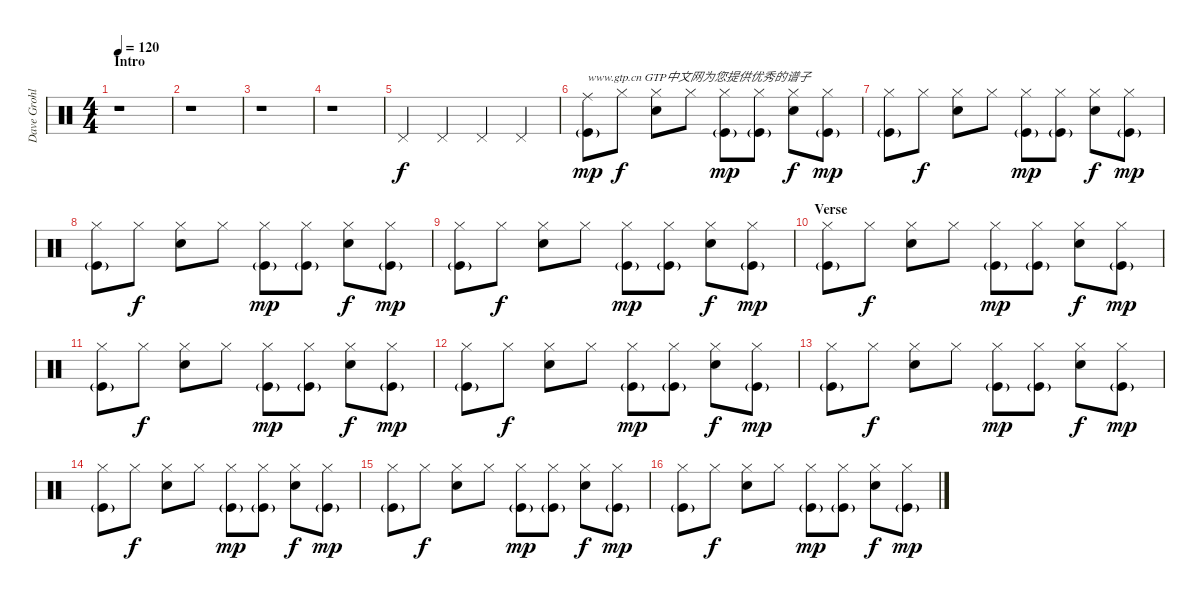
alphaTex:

\track ("Dave Grohl" "Dave Grohl") {instrument percussion}
\staff {score}
\articulation defaults
\ts (4 4)
\section ("" "Intro")
\tempo 120
\clef neutral
\ks c
r.1{dy f} |
r.1 |
r.1 |
r.1 |
"Pedal Hi-Hat (hit)".4 "Pedal Hi-Hat (hit)".4 "Pedal Hi-Hat (hit)".4 "Pedal Hi-Hat (hit)".4 |
("Ride (middle)" "Kick (hit)"{g}).8{txt "www.gtp.cn GTP中文网为您提供优秀的谱子" dy mp} "Hi-Hat (closed)".8{dy f} ("Hi-Hat (closed)" "Electric Snare (hit)").8 "Hi-Hat (closed)".8 ("Hi-Hat (closed)" "Kick (hit)"{g}).8{dy mp} ("Hi-Hat (closed)" "Kick (hit)"{g}).8 ("Hi-Hat (closed)" "Electric Snare (hit)").8{dy f} ("Hi-Hat (closed)" "Kick (hit)"{g}).8{dy mp} |
("Hi-Hat (closed)" "Kick (hit)"{g}).8 "Hi-Hat (closed)".8{dy f} ("Hi-Hat (closed)" "Electric Snare (hit)").8 "Hi-Hat (closed)".8 ("Hi-Hat (closed)" "Kick (hit)"{g}).8{dy mp} ("Hi-Hat (closed)" "Kick (hit)"{g}).8 ("Hi-Hat (closed)" "Electric Snare (hit)").8{dy f} ("Hi-Hat (closed)" "Kick (hit)"{g}).8{dy mp} |
("Hi-Hat (closed)" "Kick (hit)"{g}).8 "Hi-Hat (closed)".8{dy f} ("Hi-Hat (closed)" "Electric Snare (hit)").8 "Hi-Hat (closed)".8 ("Hi-Hat (closed)" "Kick (hit)"{g}).8{dy mp} ("Hi-Hat (closed)" "Kick (hit)"{g}).8 ("Hi-Hat (closed)" "Electric Snare (hit)").8{dy f} ("Hi-Hat (closed)" "Kick (hit)"{g}).8{dy mp} |
("Hi-Hat (closed)" "Kick (hit)"{g}).8 "Hi-Hat (closed)".8{dy f} ("Hi-Hat (closed)" "Electric Snare (hit)").8 "Hi-Hat (closed)".8 ("Hi-Hat (closed)" "Kick (hit)"{g}).8{dy mp} ("Hi-Hat (closed)" "Kick (hit)"{g}).8 ("Hi-Hat (closed)" "Electric Snare (hit)").8{dy f} ("Hi-Hat (closed)" "Kick (hit)"{g}).8{dy mp} |
\section ("" "Verse")
("Hi-Hat (closed)" "Kick (hit)"{g}).8 "Hi-Hat (closed)".8{dy f} ("Hi-Hat (closed)" "Electric Snare (hit)").8 "Hi-Hat (closed)".8 ("Hi-Hat (closed)" "Kick (hit)"{g}).8{dy mp} ("Hi-Hat (closed)" "Kick (hit)"{g}).8 ("Hi-Hat (closed)" "Electric Snare (hit)").8{dy f} ("Hi-Hat (closed)" "Kick (hit)"{g}).8{dy mp} |
("Hi-Hat (closed)" "Kick (hit)"{g}).8 "Hi-Hat (closed)".8{dy f} ("Hi-Hat (closed)" "Electric Snare (hit)").8 "Hi-Hat (closed)".8 ("Hi-Hat (closed)" "Kick (hit)"{g}).8{dy mp} ("Hi-Hat (closed)" "Kick (hit)"{g}).8 ("Hi-Hat (closed)" "Electric Snare (hit)").8{dy f} ("Hi-Hat (closed)" "Kick (hit)"{g}).8{dy mp} |
("Hi-Hat (closed)" "Kick (hit)"{g}).8 "Hi-Hat (closed)".8{dy f} ("Hi-Hat (closed)" "Electric Snare (hit)").8 "Hi-Hat (closed)".8 ("Hi-Hat (closed)" "Kick (hit)"{g}).8{dy mp} ("Hi-Hat (closed)" "Kick (hit)"{g}).8 ("Hi-Hat (closed)" "Electric Snare (hit)").8{dy f} ("Hi-Hat (closed)" "Kick (hit)"{g}).8{dy mp} |
("Hi-Hat (closed)" "Kick (hit)"{g}).8 "Hi-Hat (closed)".8{dy f} ("Hi-Hat (closed)" "Electric Snare (hit)").8 "Hi-Hat (closed)".8 ("Hi-Hat (closed)" "Kick (hit)"{g}).8{dy mp} ("Hi-Hat (closed)" "Kick (hit)"{g}).8 ("Hi-Hat (closed)" "Electric Snare (hit)").8{dy f} ("Hi-Hat (closed)" "Kick (hit)"{g}).8{dy mp} |
("Hi-Hat (closed)" "Kick (hit)"{g}).8 "Hi-Hat (closed)".8{dy f} ("Hi-Hat (closed)" "Electric Snare (hit)").8 "Hi-Hat (closed)".8 ("Hi-Hat (closed)" "Kick (hit)"{g}).8{dy mp} ("Hi-Hat (closed)" "Kick (hit)"{g}).8 ("Hi-Hat (closed)" "Electric Snare (hit)").8{dy f} ("Hi-Hat (closed)" "Kick (hit)"{g}).8{dy mp} |
("Hi-Hat (closed)" "Kick (hit)"{g}).8 "Hi-Hat (closed)".8{dy f} ("Hi-Hat (closed)" "Electric Snare (hit)").8 "Hi-Hat (closed)".8 ("Hi-Hat (closed)" "Kick (hit)"{g}).8{dy mp} ("Hi-Hat (closed)" "Kick (hit)"{g}).8 ("Hi-Hat (closed)" "Electric Snare (hit)").8{dy f} ("Hi-Hat (closed)" "Kick (hit)"{g}).8{dy mp} |
("Hi-Hat (closed)" "Kick (hit)"{g}).8 "Hi-Hat (closed)".8{dy f} ("Hi-Hat (closed)" "Electric Snare (hit)").8 "Hi-Hat (closed)".8 ("Hi-Hat (closed)" "Kick (hit)"{g}).8{dy mp} ("Hi-Hat (closed)" "Kick (hit)"{g}).8 ("Hi-Hat (closed)" "Electric Snare (hit)").8{dy f} ("Hi-Hat (closed)" "Kick (hit)"{g}).8{dy mp}
